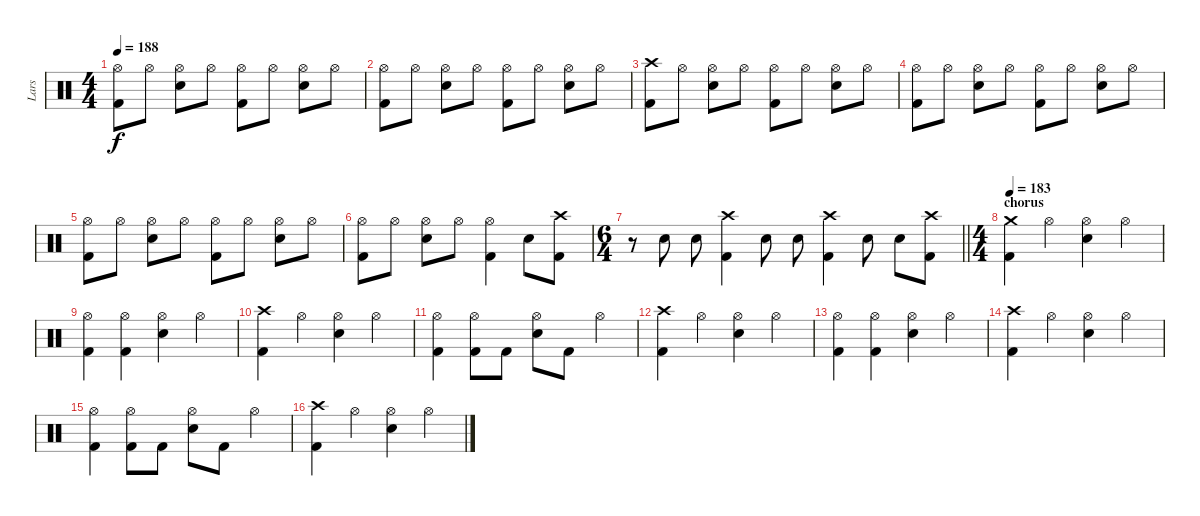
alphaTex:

\track ("Lars" "Lars") {instrument percussion}
\staff {score}
\articulation defaults
\ts (4 4)
\tempo 188
\clef neutral
\ks c
("Hi-Hat (open)" "Kick (hit) 2").8{dy f} "Hi-Hat (open)".8 ("Hi-Hat (open)" "Snare (hit) 2").8 "Hi-Hat (open)".8 ("Hi-Hat (open)" "Kick (hit) 2").8 "Hi-Hat (open)".8 ("Hi-Hat (open)" "Snare (hit) 2").8 "Hi-Hat (open)".8 |
("Hi-Hat (open)" "Kick (hit) 2").8 "Hi-Hat (open)".8 ("Hi-Hat (open)" "Snare (hit) 2").8 "Hi-Hat (open)".8 ("Hi-Hat (open)" "Kick (hit) 2").8 "Hi-Hat (open)".8 ("Hi-Hat (open)" "Snare (hit) 2").8 "Hi-Hat (open)".8 |
("Crash high (hit)" "Kick (hit) 2").8 "Hi-Hat (open)".8 ("Hi-Hat (open)" "Snare (hit) 2").8 "Hi-Hat (open)".8 ("Hi-Hat (open)" "Kick (hit) 2").8 "Hi-Hat (open)".8 ("Hi-Hat (open)" "Snare (hit) 2").8 "Hi-Hat (open)".8 |
("Hi-Hat (open)" "Kick (hit) 2").8 "Hi-Hat (open)".8 ("Hi-Hat (open)" "Snare (hit) 2").8 "Hi-Hat (open)".8 ("Hi-Hat (open)" "Kick (hit) 2").8 "Hi-Hat (open)".8 ("Hi-Hat (open)" "Snare (hit) 2").8 "Hi-Hat (open)".8 |
("Hi-Hat (open)" "Kick (hit) 2").8 "Hi-Hat (open)".8 ("Hi-Hat (open)" "Snare (hit) 2").8 "Hi-Hat (open)".8 ("Hi-Hat (open)" "Kick (hit) 2").8 "Hi-Hat (open)".8 ("Hi-Hat (open)" "Snare (hit) 2").8 "Hi-Hat (open)".8 |
("Hi-Hat (open)" "Kick (hit) 2").8 "Hi-Hat (open)".8 ("Hi-Hat (open)" "Snare (hit) 2").8 "Hi-Hat (open)".8 ("Hi-Hat (open)" "Kick (hit) 2").4 "Snare (hit) 2".8 ("Crash high (hit)" "Kick (hit) 2").8 |
\ts (6 4)
\barLineRight lightlight
r.8 "Snare (hit) 2".8 "Snare (hit) 2".8 ("Crash high (hit)" "Kick (hit) 2").4 "Snare (hit) 2".8 "Snare (hit) 2".8 ("Crash high (hit)" "Kick (hit) 2").4 "Snare (hit) 2".8 "Snare (hit) 2".8 ("Crash high (hit)" "Kick (hit) 2").8 |
\ts (4 4)
\section ("" "chorus")
\tempo 183
("Crash medium (hit)" "Kick (hit) 2").4 "Hi-Hat (open)".4 ("Hi-Hat (open)" "Snare (hit) 2").4 "Hi-Hat (open)".4 |
("Hi-Hat (open)" "Kick (hit) 2").4 ("Hi-Hat (open)" "Kick (hit) 2").4 ("Hi-Hat (open)" "Snare (hit) 2").4 "Hi-Hat (open)".4 |
("Crash high (hit)" "Kick (hit) 2").4 "Hi-Hat (open)".4 ("Hi-Hat (open)" "Snare (hit) 2").4 "Hi-Hat (open)".4 |
("Hi-Hat (open)" "Kick (hit) 2").4 ("Hi-Hat (open)" "Kick (hit) 2").8 "Kick (hit) 2".8 ("Hi-Hat (open)" "Snare (hit) 2").8 "Kick (hit) 2".8 "Hi-Hat (open)".4 |
("Crash high (hit)" "Kick (hit) 2").4 "Hi-Hat (open)".4 ("Hi-Hat (open)" "Snare (hit) 2").4 "Hi-Hat (open)".4 |
("Hi-Hat (open)" "Kick (hit) 2").4 ("Hi-Hat (open)" "Kick (hit) 2").4 ("Hi-Hat (open)" "Snare (hit) 2").4 "Hi-Hat (open)".4 |
("Crash high (hit)" "Kick (hit) 2").4 "Hi-Hat (open)".4 ("Hi-Hat (open)" "Snare (hit) 2").4 "Hi-Hat (open)".4 |
("Hi-Hat (open)" "Kick (hit) 2").4 ("Hi-Hat (open)" "Kick (hit) 2").8 "Kick (hit) 2".8 ("Hi-Hat (open)" "Snare (hit) 2").8 "Kick (hit) 2".8 "Hi-Hat (open)".4 |
("Crash high (hit)" "Kick (hit) 2").4 "Hi-Hat (open)".4 ("Hi-Hat (open)" "Snare (hit) 2").4 "Hi-Hat (open)".4
